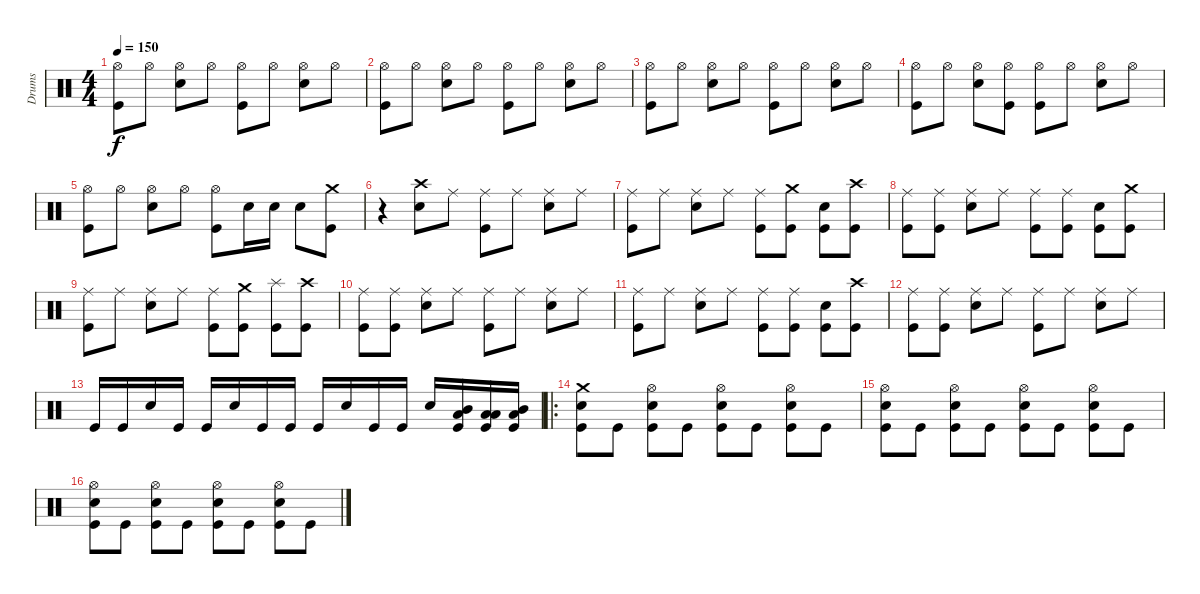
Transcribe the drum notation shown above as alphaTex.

\track ("Drums" "Drums") {instrument percussion}
\staff {score}
\articulation defaults
\ts (4 4)
\tempo 150
\clef neutral
\ks c
("Hi-Hat (open)" "Kick (hit)").8{dy f} "Hi-Hat (open)".8 ("Hi-Hat (open)" "Snare (hit) 2").8 "Hi-Hat (open)".8 ("Hi-Hat (open)" "Kick (hit)").8 "Hi-Hat (open)".8 ("Hi-Hat (open)" "Snare (hit) 2").8 "Hi-Hat (open)".8 |
("Hi-Hat (open)" "Kick (hit)").8 "Hi-Hat (open)".8 ("Hi-Hat (open)" "Snare (hit) 2").8 "Hi-Hat (open)".8 ("Hi-Hat (open)" "Kick (hit)").8 "Hi-Hat (open)".8 ("Hi-Hat (open)" "Snare (hit) 2").8 "Hi-Hat (open)".8 |
("Hi-Hat (open)" "Kick (hit)").8 "Hi-Hat (open)".8 ("Hi-Hat (open)" "Snare (hit) 2").8 "Hi-Hat (open)".8 ("Hi-Hat (open)" "Kick (hit)").8 "Hi-Hat (open)".8 ("Hi-Hat (open)" "Snare (hit) 2").8 "Hi-Hat (open)".8 |
("Hi-Hat (open)" "Kick (hit)").8 "Hi-Hat (open)".8 ("Hi-Hat (open)" "Snare (hit) 2").8 ("Hi-Hat (open)" "Kick (hit)").8 ("Hi-Hat (open)" "Kick (hit)").8 "Hi-Hat (open)".8 ("Hi-Hat (open)" "Snare (hit) 2").8 "Hi-Hat (open)".8 |
("Hi-Hat (open)" "Kick (hit)").8 "Hi-Hat (open)".8 ("Hi-Hat (open)" "Snare (hit) 2").8 "Hi-Hat (open)".8 ("Hi-Hat (open)" "Kick (hit)").8 "Snare (hit) 2".16 "Snare (hit) 2".16 "Snare (hit) 2".8 ("Crash medium (hit)" "Kick (hit)").8 |
r.4 ("Crash high (hit)" "Snare (hit) 2").8 "Ride (middle)".8 ("Ride (middle)" "Kick (hit)").8 "Ride (middle)".8 ("Ride (middle)" "Snare (hit) 2").8 "Ride (middle)".8 |
("Ride (middle)" "Kick (hit)").8 "Ride (middle)".8 ("Ride (middle)" "Snare (hit) 2").8 "Ride (middle)".8 ("Ride (middle)" "Kick (hit)").8 ("Crash medium (hit)" "Kick (hit)").8 ("Snare (hit) 2" "Kick (hit)").8 ("Crash high (hit)" "Kick (hit)").8 |
("Ride (middle)" "Kick (hit)").8 ("Ride (middle)" "Kick (hit)").8 ("Ride (middle)" "Snare (hit) 2").8 "Ride (middle)".8 ("Ride (middle)" "Kick (hit)").8 ("Ride (middle)" "Kick (hit)").8 ("Snare (hit) 2" "Kick (hit)").8 ("Crash medium (hit)" "Kick (hit)").8 |
("Ride (middle)" "Kick (hit)").8 "Ride (middle)".8 ("Ride (middle)" "Snare (hit) 2").8 "Ride (middle)".8 ("Ride (middle)" "Kick (hit)").8 ("Crash medium (hit)" "Kick (hit)").8 ("Splash (hit)" "Kick (hit)").8 ("Crash high (hit)" "Kick (hit)").8 |
("Ride (middle)" "Kick (hit)").8 ("Ride (middle)" "Kick (hit)").8 ("Ride (middle)" "Snare (hit) 2").8 "Ride (middle)".8 ("Ride (middle)" "Kick (hit)").8 "Ride (middle)".8 ("Ride (middle)" "Snare (hit) 2").8 "Ride (middle)".8 |
("Ride (middle)" "Kick (hit)").8 "Ride (middle)".8 ("Ride (middle)" "Snare (hit) 2").8 "Ride (middle)".8 ("Ride (middle)" "Kick (hit)").8 ("Ride (middle)" "Kick (hit)").8 ("Snare (hit) 2" "Kick (hit)").8 ("Crash high (hit)" "Kick (hit)").8 |
("Ride (middle)" "Kick (hit)").8 ("Ride (middle)" "Kick (hit)").8 ("Ride (middle)" "Snare (hit) 2").8 "Ride (middle)".8 ("Ride (middle)" "Kick (hit)").8 "Ride (middle)".8 ("Ride (middle)" "Snare (hit) 2").8 "Ride (middle)".8 |
"Kick (hit)".16 "Kick (hit)".16 "Snare (hit) 2".16 "Kick (hit)".16 "Kick (hit)".16 "Snare (hit) 2".16 "Kick (hit)".16 "Kick (hit)".16 "Kick (hit)".16 "Snare (hit) 2".16 "Kick (hit)".16 "Kick (hit)".16 "Snare (hit) 2".16 ("Low Tom (hit)" "Mid Tom (hit)" "Kick (hit)").16 ("Low Floor Tom (hit)" "Low Tom (hit)" "Kick (hit)").16 ("Mid Tom (hit)" "Low Floor Tom (hit)" "Kick (hit)").16 |
\ro
("Crash medium (hit)" "Snare (hit) 2" "Kick (hit)").8 "Kick (hit)".8 ("Hi-Hat (open)" "Snare (hit) 2" "Kick (hit)").8 "Kick (hit)".8 ("Hi-Hat (open)" "Snare (hit) 2" "Kick (hit)").8 "Kick (hit)".8 ("Hi-Hat (open)" "Snare (hit) 2" "Kick (hit)").8 "Kick (hit)".8 |
("Hi-Hat (open)" "Snare (hit) 2" "Kick (hit)").8 "Kick (hit)".8 ("Hi-Hat (open)" "Snare (hit) 2" "Kick (hit)").8 "Kick (hit)".8 ("Hi-Hat (open)" "Snare (hit) 2" "Kick (hit)").8 "Kick (hit)".8 ("Hi-Hat (open)" "Snare (hit) 2" "Kick (hit)").8 "Kick (hit)".8 |
("Hi-Hat (open)" "Snare (hit) 2" "Kick (hit)").8 "Kick (hit)".8 ("Hi-Hat (open)" "Snare (hit) 2" "Kick (hit)").8 "Kick (hit)".8 ("Hi-Hat (open)" "Snare (hit) 2" "Kick (hit)").8 "Kick (hit)".8 ("Hi-Hat (open)" "Snare (hit) 2" "Kick (hit)").8 "Kick (hit)".8
